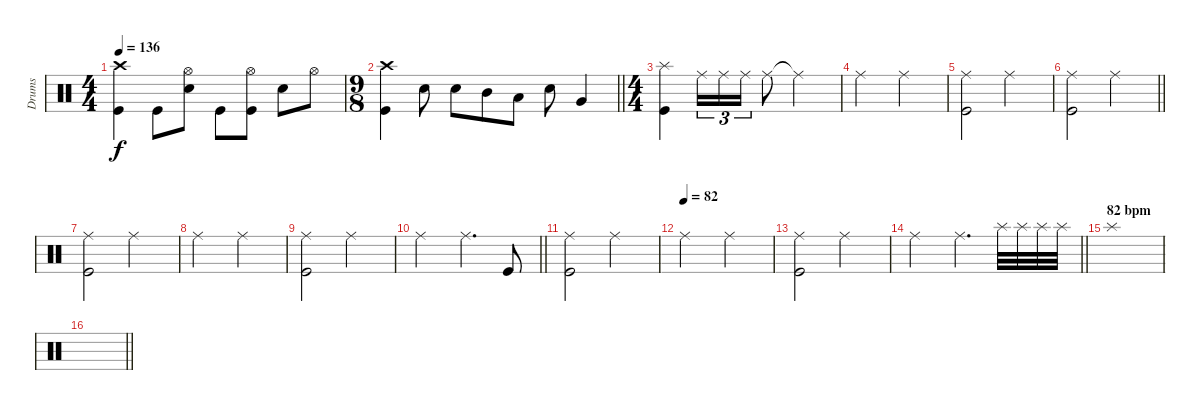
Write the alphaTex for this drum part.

\track ("Drums" "Drums") {instrument percussion}
\staff
\articulation defaults
\ts (4 4)
\tempo 136
\clef neutral
\ks c
("Crash high (hit)" "Kick (hit)").4{dy f} "Kick (hit)".8 ("Hi-Hat (open)" "Electric Snare (hit)").8 "Kick (hit)".8 ("Hi-Hat (open)" "Kick (hit)").8 "Electric Snare (hit)".8 "Hi-Hat (open)".8 |
\ts (9 8)
\barLineRight lightlight
("Crash high (hit)" "Kick (hit)").4 "Electric Snare (hit)".8 "Electric Snare (hit)".8 "Mid Tom (hit)".8 "Low Tom (hit)".8 "Electric Snare (hit)".8 "Very Low Tom (hit)".4 |
\ts (4 4)
\section ("" "")
("Splash (hit)" "Kick (hit)").4 "Ride (middle)".16{tu (3 2)} "Ride (middle)".16{tu (3 2)} "Ride (middle)".16{tu (3 2)} "Ride (middle)".8 "Ride (middle)"{t}.2 |
"Ride (middle)".2 "Ride (middle)".2 |
("Ride (middle)" "Kick (hit)").2 "Ride (middle)".2 |
\barLineRight lightlight
("Ride (middle)" "Kick (hit)").2 "Ride (middle)".2 |
("Ride (middle)" "Kick (hit)").2 "Ride (middle)".2 |
"Ride (middle)".2 "Ride (middle)".2 |
("Ride (middle)" "Kick (hit)").2 "Ride (middle)".2 |
\barLineRight lightlight "Ride (middle)".2 "Ride (middle)".4{d} "Kick (hit)".8
|
("Ride (middle)" "Kick (hit)").2 "Ride (middle)".2 |
\tempo (82)
"Ride (middle)".2 "Ride (middle)".2 |
("Ride (middle)" "Kick (hit)").2 "Ride (middle)".2 |
\barLineRight lightlight "Ride (middle)".2 "Ride (middle)".4{d} "Splash (hit)".32{volume 5} "Splash (hit)".32{volume 11} "Splash (hit)".32 "Splash (hit)".32
|
\section ("" "82 bpm")
"Splash (hit)".1 |
\barLineRight lightlight
